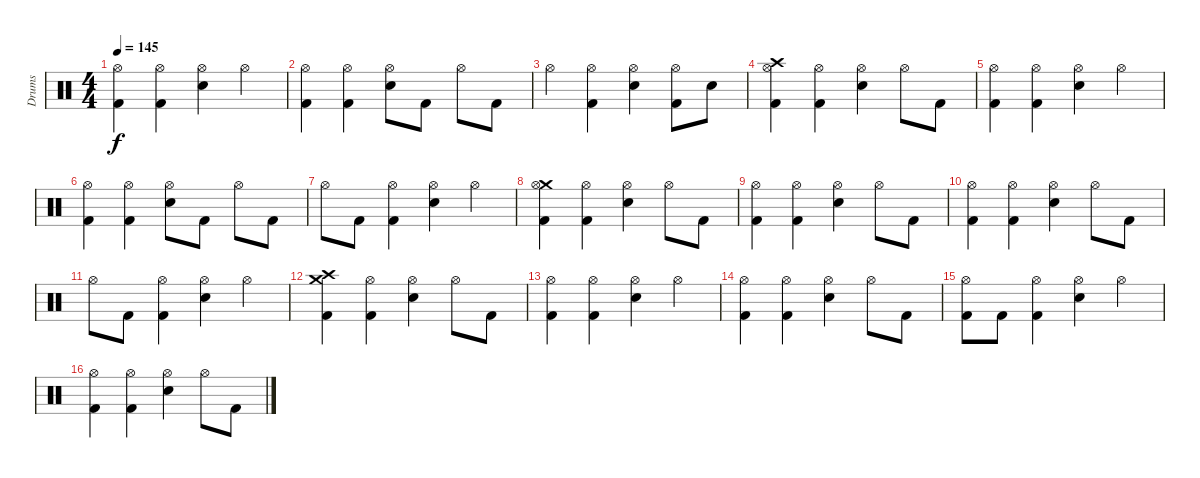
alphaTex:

\track ("Drums" "Drums") {instrument percussion}
\staff {score}
\articulation defaults
\ts (4 4)
\tempo 145
\clef neutral
\ks c
("Hi-Hat (open)" "Kick (hit) 2").4{dy f} ("Hi-Hat (open)" "Kick (hit) 2").4 ("Hi-Hat (open)" "Electric Snare (hit)").4 "Hi-Hat (open)".4 |
("Hi-Hat (open)" "Kick (hit) 2").4 ("Hi-Hat (open)" "Kick (hit) 2").4 ("Hi-Hat (open)" "Electric Snare (hit)").8 "Kick (hit) 2".8 "Hi-Hat (open)".8 "Kick (hit) 2".8 |
"Hi-Hat (open)".4 ("Hi-Hat (open)" "Kick (hit) 2").4 ("Hi-Hat (open)" "Electric Snare (hit)").4 ("Hi-Hat (open)" "Kick (hit) 2").8 "Electric Snare (hit)".8 |
("Crash high (hit)" "Hi-Hat (open)" "Kick (hit) 2").4 ("Hi-Hat (open)" "Kick (hit) 2").4 ("Hi-Hat (open)" "Electric Snare (hit)").4 "Hi-Hat (open)".8 "Kick (hit) 2".8 |
("Hi-Hat (open)" "Kick (hit) 2").4 ("Hi-Hat (open)" "Kick (hit) 2").4 ("Hi-Hat (open)" "Electric Snare (hit)").4 "Hi-Hat (open)".4 |
("Hi-Hat (open)" "Kick (hit) 2").4 ("Hi-Hat (open)" "Kick (hit) 2").4 ("Hi-Hat (open)" "Electric Snare (hit)").8 "Kick (hit) 2".8 "Hi-Hat (open)".8 "Kick (hit) 2".8 |
"Hi-Hat (open)".8 "Kick (hit) 2".8 ("Hi-Hat (open)" "Kick (hit) 2").4 ("Hi-Hat (open)" "Electric Snare (hit)").4 "Hi-Hat (open)".4 |
("Crash medium (hit)" "Hi-Hat (open)" "Kick (hit) 2").4 ("Hi-Hat (open)" "Kick (hit) 2").4 ("Hi-Hat (open)" "Electric Snare (hit)").4 "Hi-Hat (open)".8 "Kick (hit) 2".8 |
("Hi-Hat (open)" "Kick (hit) 2").4 ("Hi-Hat (open)" "Kick (hit) 2").4 ("Hi-Hat (open)" "Electric Snare (hit)").4 "Hi-Hat (open)".8 "Kick (hit) 2".8 |
("Hi-Hat (open)" "Kick (hit) 2").4 ("Hi-Hat (open)" "Kick (hit) 2").4 ("Hi-Hat (open)" "Electric Snare (hit)").4 "Hi-Hat (open)".8 "Kick (hit) 2".8 |
"Hi-Hat (open)".8 "Kick (hit) 2".8 ("Hi-Hat (open)" "Kick (hit) 2").4 ("Hi-Hat (open)" "Electric Snare (hit)").4 "Hi-Hat (open)".4 |
("Crash medium (hit)" "Crash high (hit)" "Kick (hit) 2").4 ("Hi-Hat (open)" "Kick (hit) 2").4 ("Hi-Hat (open)" "Electric Snare (hit)").4 "Hi-Hat (open)".8 "Kick (hit) 2".8 |
("Hi-Hat (open)" "Kick (hit) 2").4 ("Hi-Hat (open)" "Kick (hit) 2").4 ("Hi-Hat (open)" "Electric Snare (hit)").4 "Hi-Hat (open)".4 |
("Hi-Hat (open)" "Kick (hit) 2").4 ("Hi-Hat (open)" "Kick (hit) 2").4 ("Hi-Hat (open)" "Electric Snare (hit)").4 "Hi-Hat (open)".8 "Kick (hit) 2".8 |
("Hi-Hat (open)" "Kick (hit) 2").8 "Kick (hit) 2".8 ("Hi-Hat (open)" "Kick (hit) 2").4 ("Hi-Hat (open)" "Electric Snare (hit)").4 "Hi-Hat (open)".4 |
("Hi-Hat (open)" "Kick (hit) 2").4 ("Hi-Hat (open)" "Kick (hit) 2").4 ("Hi-Hat (open)" "Electric Snare (hit)").4 "Hi-Hat (open)".8 "Kick (hit) 2".8
